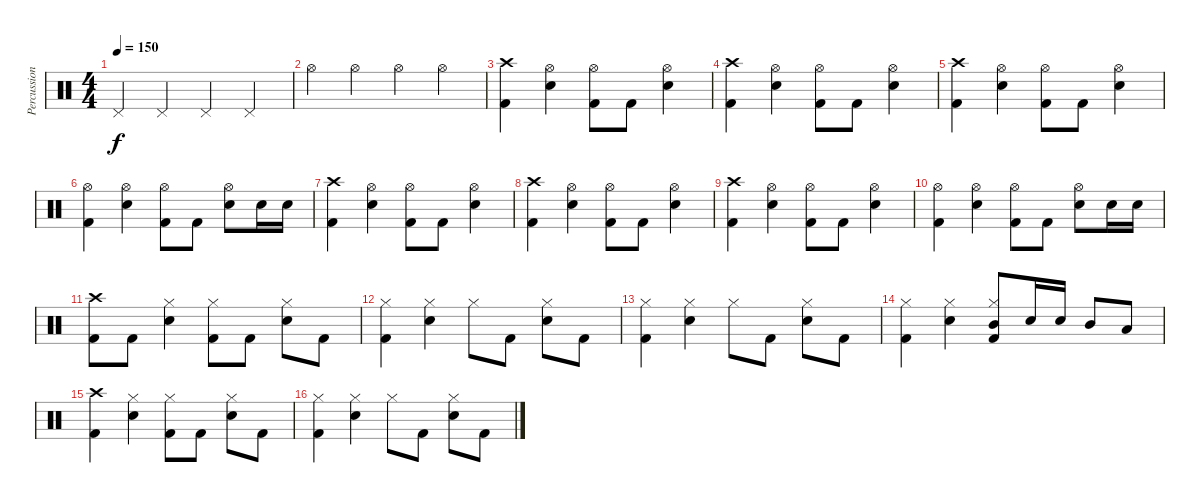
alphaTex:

\track ("Percussion" "Percussion") {instrument percussion}
\staff {score}
\articulation defaults
\ts (4 4)
\tempo 150
\clef neutral
\ks c "Pedal Hi-Hat (hit)".4{dy f} "Pedal Hi-Hat (hit)".4 "Pedal Hi-Hat (hit)".4 "Pedal Hi-Hat (hit)".4
|
"Hi-Hat (open)".4 "Hi-Hat (open)".4 "Hi-Hat (open)".4 "Hi-Hat (open)".4 |
("Crash high (hit)" "Kick (hit) 2").4 ("Hi-Hat (open)" "Snare (hit) 2").4 ("Hi-Hat (open)" "Kick (hit) 2").8 "Kick (hit) 2".8 ("Hi-Hat (open)" "Snare (hit) 2").4 |
("Crash high (hit)" "Kick (hit) 2").4 ("Hi-Hat (open)" "Snare (hit) 2").4 ("Hi-Hat (open)" "Kick (hit) 2").8 "Kick (hit) 2".8 ("Hi-Hat (open)" "Snare (hit) 2").4 |
("Crash high (hit)" "Kick (hit) 2").4 ("Hi-Hat (open)" "Snare (hit) 2").4 ("Hi-Hat (open)" "Kick (hit) 2").8 "Kick (hit) 2".8 ("Hi-Hat (open)" "Snare (hit) 2").4 |
("Hi-Hat (open)" "Kick (hit) 2").4 ("Hi-Hat (open)" "Snare (hit) 2").4 ("Hi-Hat (open)" "Kick (hit) 2").8 "Kick (hit) 2".8 ("Hi-Hat (open)" "Snare (hit) 2").8 "Snare (hit) 2".16 "Snare (hit) 2".16 |
("Crash high (hit)" "Kick (hit) 2").4 ("Hi-Hat (open)" "Snare (hit) 2").4 ("Hi-Hat (open)" "Kick (hit) 2").8 "Kick (hit) 2".8 ("Hi-Hat (open)" "Snare (hit) 2").4 |
("Crash high (hit)" "Kick (hit) 2").4 ("Hi-Hat (open)" "Snare (hit) 2").4 ("Hi-Hat (open)" "Kick (hit) 2").8 "Kick (hit) 2".8 ("Hi-Hat (open)" "Snare (hit) 2").4 |
("Crash high (hit)" "Kick (hit) 2").4 ("Hi-Hat (open)" "Snare (hit) 2").4 ("Hi-Hat (open)" "Kick (hit) 2").8 "Kick (hit) 2".8 ("Hi-Hat (open)" "Snare (hit) 2").4 |
("Hi-Hat (open)" "Kick (hit) 2").4 ("Hi-Hat (open)" "Snare (hit) 2").4 ("Hi-Hat (open)" "Kick (hit) 2").8 "Kick (hit) 2".8 ("Hi-Hat (open)" "Snare (hit) 2").8 "Snare (hit) 2".16 "Snare (hit) 2".16 |
("Crash high (hit)" "Kick (hit) 2").8 "Kick (hit) 2".8 ("Hi-Hat (closed)" "Snare (hit) 2").4 ("Hi-Hat (closed)" "Kick (hit) 2").8 "Kick (hit) 2".8 ("Hi-Hat (closed)" "Snare (hit) 2").8 "Kick (hit) 2".8 |
("Hi-Hat (closed)" "Kick (hit) 2").4 ("Hi-Hat (closed)" "Snare (hit) 2").4 "Hi-Hat (closed)".8 "Kick (hit) 2".8 ("Hi-Hat (closed)" "Snare (hit) 2").8 "Kick (hit) 2".8 |
("Hi-Hat (closed)" "Kick (hit) 2").4 ("Hi-Hat (closed)" "Snare (hit) 2").4 "Hi-Hat (closed)".8 "Kick (hit) 2".8 ("Hi-Hat (closed)" "Snare (hit) 2").8 "Kick (hit) 2".8 |
("Hi-Hat (closed)" "Kick (hit) 2").4 ("Hi-Hat (closed)" "Snare (hit) 2").4 ("Hi-Hat (closed)" "Mid Tom (hit)" "Kick (hit) 2").8 "Snare (hit) 2".16 "Snare (hit) 2".16 "Mid Tom (hit)".8 "Low Floor Tom (hit)".8 |
("Crash high (hit)" "Kick (hit) 2").4 ("Hi-Hat (closed)" "Snare (hit) 2").4 ("Hi-Hat (closed)" "Kick (hit) 2").8 "Kick (hit) 2".8 ("Hi-Hat (closed)" "Snare (hit) 2").8 "Kick (hit) 2".8 |
("Hi-Hat (closed)" "Kick (hit) 2").4 ("Hi-Hat (closed)" "Snare (hit) 2").4 "Hi-Hat (closed)".8 "Kick (hit) 2".8 ("Hi-Hat (closed)" "Snare (hit) 2").8 "Kick (hit) 2".8
